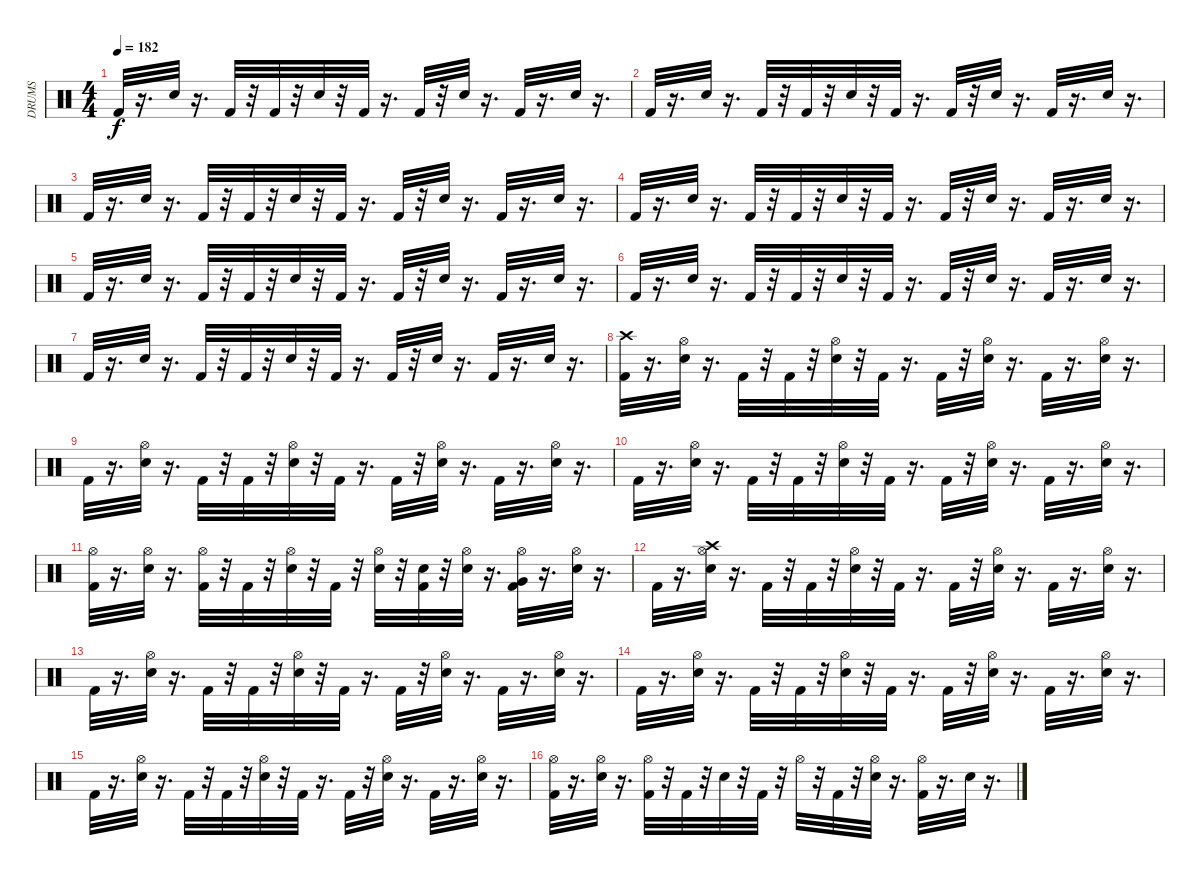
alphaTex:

\track ("DRUMS" "DRUMS") {instrument percussion}
\staff {score}
\articulation defaults
\ts (4 4)
\tempo 182
\clef neutral
\ks c "Kick (hit) 2".32{dy f}
r.16{d} "Electric Snare (hit)".32 r.16{d} "Kick (hit) 2".32 r.32 "Kick (hit) 2".32 r.32 "Electric Snare (hit)".32 r.32 "Kick (hit) 2".32 r.16{d} "Kick (hit) 2".32 r.32 "Electric Snare (hit)".32 r.16{d} "Kick (hit) 2".32 r.16{d} "Electric Snare (hit)".32 r.16{d} |
"Kick (hit) 2".32 r.16{d} "Electric Snare (hit)".32 r.16{d} "Kick (hit) 2".32 r.32 "Kick (hit) 2".32 r.32 "Electric Snare (hit)".32 r.32 "Kick (hit) 2".32 r.16{d} "Kick (hit) 2".32 r.32 "Electric Snare (hit)".32 r.16{d} "Kick (hit) 2".32 r.16{d} "Electric Snare (hit)".32 r.16{d} |
"Kick (hit) 2".32 r.16{d} "Electric Snare (hit)".32 r.16{d} "Kick (hit) 2".32 r.32 "Kick (hit) 2".32 r.32 "Electric Snare (hit)".32 r.32 "Kick (hit) 2".32 r.16{d} "Kick (hit) 2".32 r.32 "Electric Snare (hit)".32 r.16{d} "Kick (hit) 2".32 r.16{d} "Electric Snare (hit)".32 r.16{d} |
"Kick (hit) 2".32 r.16{d} "Electric Snare (hit)".32 r.16{d} "Kick (hit) 2".32 r.32 "Kick (hit) 2".32 r.32 "Electric Snare (hit)".32 r.32 "Kick (hit) 2".32 r.16{d} "Kick (hit) 2".32 r.32 "Electric Snare (hit)".32 r.16{d} "Kick (hit) 2".32 r.16{d} "Electric Snare (hit)".32 r.16{d} |
"Kick (hit) 2".32 r.16{d} "Electric Snare (hit)".32 r.16{d} "Kick (hit) 2".32 r.32 "Kick (hit) 2".32 r.32 "Electric Snare (hit)".32 r.32 "Kick (hit) 2".32 r.16{d} "Kick (hit) 2".32 r.32 "Electric Snare (hit)".32 r.16{d} "Kick (hit) 2".32 r.16{d} "Electric Snare (hit)".32 r.16{d} |
"Kick (hit) 2".32 r.16{d} "Electric Snare (hit)".32 r.16{d} "Kick (hit) 2".32 r.32 "Kick (hit) 2".32 r.32 "Electric Snare (hit)".32 r.32 "Kick (hit) 2".32 r.16{d} "Kick (hit) 2".32 r.32 "Electric Snare (hit)".32 r.16{d} "Kick (hit) 2".32 r.16{d} "Electric Snare (hit)".32 r.16{d} |
"Kick (hit) 2".32 r.16{d} "Electric Snare (hit)".32 r.16{d} "Kick (hit) 2".32 r.32 "Kick (hit) 2".32 r.32 "Electric Snare (hit)".32 r.32 "Kick (hit) 2".32 r.16{d} "Kick (hit) 2".32 r.32 "Electric Snare (hit)".32 r.16{d} "Kick (hit) 2".32 r.16{d} "Electric Snare (hit)".32 r.16{d} |
("Kick (hit) 2" "Crash high (hit)").32 r.16{d} ("Electric Snare (hit)" "Hi-Hat (open)").32 r.16{d} "Kick (hit) 2".32 r.32 "Kick (hit) 2".32 r.32 ("Electric Snare (hit)" "Hi-Hat (open)").32 r.32 "Kick (hit) 2".32 r.16{d} "Kick (hit) 2".32 r.32 ("Electric Snare (hit)" "Hi-Hat (open)").32 r.16{d} "Kick (hit) 2".32 r.16{d} ("Electric Snare (hit)" "Hi-Hat (open)").32 r.16{d} |
"Kick (hit) 2".32 r.16{d} ("Electric Snare (hit)" "Hi-Hat (open)").32 r.16{d} "Kick (hit) 2".32 r.32 "Kick (hit) 2".32 r.32 ("Electric Snare (hit)" "Hi-Hat (open)").32 r.32 "Kick (hit) 2".32 r.16{d} "Kick (hit) 2".32 r.32 ("Electric Snare (hit)" "Hi-Hat (open)").32 r.16{d} "Kick (hit) 2".32 r.16{d} ("Electric Snare (hit)" "Hi-Hat (open)").32 r.16{d} |
"Kick (hit) 2".32 r.16{d} ("Electric Snare (hit)" "Hi-Hat (open)").32 r.16{d} "Kick (hit) 2".32 r.32 "Kick (hit) 2".32 r.32 ("Electric Snare (hit)" "Hi-Hat (open)").32 r.32 "Kick (hit) 2".32 r.16{d} "Kick (hit) 2".32 r.32 ("Electric Snare (hit)" "Hi-Hat (open)").32 r.16{d} "Kick (hit) 2".32 r.16{d} ("Electric Snare (hit)" "Hi-Hat (open)").32 r.16{d} |
("Kick (hit) 2" "Hi-Hat (open)").32 r.16{d} ("Hi-Hat (open)" "Electric Snare (hit)").32 r.16{d} ("Kick (hit) 2" "Hi-Hat (open)").32 r.32 "Kick (hit) 2".32 r.32 ("Hi-Hat (open)" "Electric Snare (hit)").32 r.32 "Kick (hit) 2".32 r.32 ("Hi-Hat (open)" "Electric Snare (hit)").32 r.32 ("Kick (hit) 2" "Electric Snare (hit)").32 r.32 ("Hi-Hat (open)" "Electric Snare (hit)").32 r.16{d} ("Kick (hit) 2" "Hi-Hat (open)" "Very Low Tom (hit)").32 r.16{d} ("Electric Snare (hit)" "Hi-Hat (open)").32 r.16{d} |
"Kick (hit) 2".32 r.16{d} ("Electric Snare (hit)" "Hi-Hat (open)" "Crash high (hit)").32 r.16{d} "Kick (hit) 2".32 r.32 "Kick (hit) 2".32 r.32 ("Electric Snare (hit)" "Hi-Hat (open)").32 r.32 "Kick (hit) 2".32 r.16{d} "Kick (hit) 2".32 r.32 ("Electric Snare (hit)" "Hi-Hat (open)").32 r.16{d} "Kick (hit) 2".32 r.16{d} ("Electric Snare (hit)" "Hi-Hat (open)").32 r.16{d} |
"Kick (hit) 2".32 r.16{d} ("Electric Snare (hit)" "Hi-Hat (open)").32 r.16{d} "Kick (hit) 2".32 r.32 "Kick (hit) 2".32 r.32 ("Electric Snare (hit)" "Hi-Hat (open)").32 r.32 "Kick (hit) 2".32 r.16{d} "Kick (hit) 2".32 r.32 ("Electric Snare (hit)" "Hi-Hat (open)").32 r.16{d} "Kick (hit) 2".32 r.16{d} ("Electric Snare (hit)" "Hi-Hat (open)").32 r.16{d} |
"Kick (hit) 2".32 r.16{d} ("Electric Snare (hit)" "Hi-Hat (open)").32 r.16{d} "Kick (hit) 2".32 r.32 "Kick (hit) 2".32 r.32 ("Electric Snare (hit)" "Hi-Hat (open)").32 r.32 "Kick (hit) 2".32 r.16{d} "Kick (hit) 2".32 r.32 ("Electric Snare (hit)" "Hi-Hat (open)").32 r.16{d} "Kick (hit) 2".32 r.16{d} ("Electric Snare (hit)" "Hi-Hat (open)").32 r.16{d} |
"Kick (hit) 2".32 r.16{d} ("Electric Snare (hit)" "Hi-Hat (open)").32 r.16{d} "Kick (hit) 2".32 r.32 "Kick (hit) 2".32 r.32 ("Electric Snare (hit)" "Hi-Hat (open)").32 r.32 "Kick (hit) 2".32 r.16{d} "Kick (hit) 2".32 r.32 ("Electric Snare (hit)" "Hi-Hat (open)").32 r.16{d} "Kick (hit) 2".32 r.16{d} ("Electric Snare (hit)" "Hi-Hat (open)").32 r.16{d} |
("Kick (hit) 2" "Hi-Hat (open)").32 r.16{d} ("Electric Snare (hit)" "Hi-Hat (open)").32 r.16{d} ("Kick (hit) 2" "Hi-Hat (open)").32 r.32 "Kick (hit) 2".32 r.32 "Electric Snare (hit)".32 r.32 "Kick (hit) 2".32 r.32 "Hi-Hat (open)".32 r.32 "Kick (hit) 2".32 r.32 ("Electric Snare (hit)" "Hi-Hat (open)").32 r.16{d} ("Kick (hit) 2" "Hi-Hat (open)").32 r.16{d} "Electric Snare (hit)".32 r.16{d}
